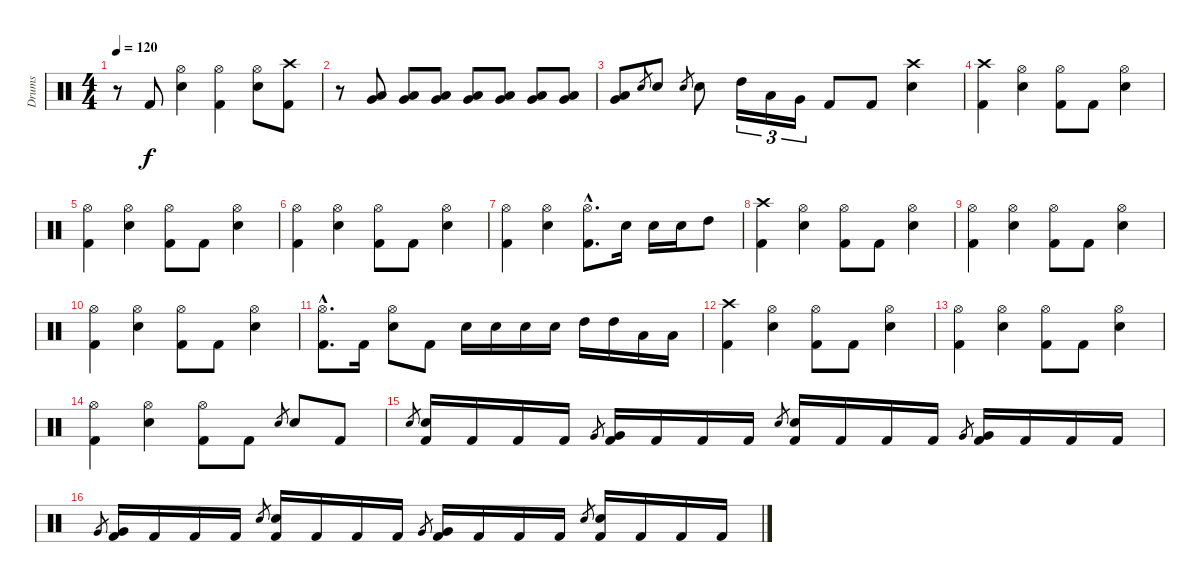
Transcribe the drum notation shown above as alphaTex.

\track ("Drums" "Drums") {instrument percussion}
\staff {score}
\articulation defaults
\ts (4 4)
\tempo 120
\clef neutral
\ks c
r.8{dy f} "Kick (hit) 2".8 ("Hi-Hat (open)" "Electric Snare (hit)").4 ("Hi-Hat (open)" "Kick (hit) 2").4 ("Hi-Hat (open)" "Electric Snare (hit)").8 ("Crash high (hit)" "Kick (hit) 2").8 |
r.8 ("Low Tom (hit)" "Very Low Tom (hit)").8 ("Low Tom (hit)" "Very Low Tom (hit)").8 ("Low Tom (hit)" "Very Low Tom (hit)").8 ("Low Tom (hit)" "Very Low Tom (hit)").8 ("Low Tom (hit)" "Very Low Tom (hit)").8 ("Low Tom (hit)" "Very Low Tom (hit)").8 ("Low Tom (hit)" "Very Low Tom (hit)").8 |
("Low Tom (hit)" "Very Low Tom (hit)").8 "Electric Snare (hit)".8{gr} "Electric Snare (hit)".8 "Electric Snare (hit)".8{gr} "Electric Snare (hit)".8 "High Tom (hit)".16{tu (3 2)} "Low Tom (hit)".16{tu (3 2)} "Very Low Tom (hit)".16{tu (3 2)} "Kick (hit) 2".8 "Kick (hit) 2".8 ("Crash high (hit)" "Electric Snare (hit)").4 |
("Crash high (hit)" "Kick (hit) 2").4 ("Hi-Hat (open)" "Electric Snare (hit)").4 ("Hi-Hat (open)" "Kick (hit) 2").8 "Kick (hit) 2".8 ("Hi-Hat (open)" "Electric Snare (hit)").4 |
("Hi-Hat (open)" "Kick (hit) 2").4 ("Hi-Hat (open)" "Electric Snare (hit)").4 ("Hi-Hat (open)" "Kick (hit) 2").8 "Kick (hit) 2".8 ("Hi-Hat (open)" "Electric Snare (hit)").4 |
("Hi-Hat (open)" "Kick (hit) 2").4 ("Hi-Hat (open)" "Electric Snare (hit)").4 ("Hi-Hat (open)" "Kick (hit) 2").8 "Kick (hit) 2".8 ("Hi-Hat (open)" "Electric Snare (hit)").4 |
("Hi-Hat (open)" "Kick (hit) 2").4 ("Hi-Hat (open)" "Electric Snare (hit)").4 ("Hi-Hat (open)"{hac} "Kick (hit) 2"{hac}).8{d} "Electric Snare (hit)".16 "Electric Snare (hit)".16 "Electric Snare (hit)".16 "High Tom (hit)".8 |
("Crash high (hit)" "Kick (hit) 2").4 ("Hi-Hat (open)" "Electric Snare (hit)").4 ("Hi-Hat (open)" "Kick (hit) 2").8 "Kick (hit) 2".8 ("Hi-Hat (open)" "Electric Snare (hit)").4 |
("Hi-Hat (open)" "Kick (hit) 2").4 ("Hi-Hat (open)" "Electric Snare (hit)").4 ("Hi-Hat (open)" "Kick (hit) 2").8 "Kick (hit) 2".8 ("Hi-Hat (open)" "Electric Snare (hit)").4 |
("Hi-Hat (open)" "Kick (hit) 2").4 ("Hi-Hat (open)" "Electric Snare (hit)").4 ("Hi-Hat (open)" "Kick (hit) 2").8 "Kick (hit) 2".8 ("Hi-Hat (open)" "Electric Snare (hit)").4 |
("Hi-Hat (open)"{hac} "Kick (hit) 2"{hac}).8{d} "Kick (hit) 2".16 ("Hi-Hat (open)" "Electric Snare (hit)").8 "Kick (hit) 2".8 "Electric Snare (hit)".16 "Electric Snare (hit)".16 "Electric Snare (hit)".16 "Electric Snare (hit)".16 "High Tom (hit)".16 "High Tom (hit)".16 "Low Tom (hit)".16 "Low Tom (hit)".16 |
("Crash high (hit)" "Kick (hit) 2").4 ("Hi-Hat (open)" "Electric Snare (hit)").4 ("Hi-Hat (open)" "Kick (hit) 2").8 "Kick (hit) 2".8 ("Hi-Hat (open)" "Electric Snare (hit)").4 |
("Hi-Hat (open)" "Kick (hit) 2").4 ("Hi-Hat (open)" "Electric Snare (hit)").4 ("Hi-Hat (open)" "Kick (hit) 2").8 "Kick (hit) 2".8 ("Hi-Hat (open)" "Electric Snare (hit)").4 |
("Hi-Hat (open)" "Kick (hit) 2").4 ("Hi-Hat (open)" "Electric Snare (hit)").4 ("Hi-Hat (open)" "Kick (hit) 2").8 "Kick (hit) 2".8 "Electric Snare (hit)".8{gr} "Electric Snare (hit)".8 "Kick (hit) 2".8 |
"Electric Snare (hit)".8{gr} ("Electric Snare (hit)" "Kick (hit) 2").16 "Kick (hit) 2".16 "Kick (hit) 2".16 "Kick (hit) 2".16 "Very Low Tom (hit)".8{gr} ("Very Low Tom (hit)" "Kick (hit) 2").16 "Kick (hit) 2".16 "Kick (hit) 2".16 "Kick (hit) 2".16 "Electric Snare (hit)".8{gr} ("Electric Snare (hit)" "Kick (hit) 2").16 "Kick (hit) 2".16 "Kick (hit) 2".16 "Kick (hit) 2".16 "Very Low Tom (hit)".8{gr} ("Very Low Tom (hit)" "Kick (hit) 2").16 "Kick (hit) 2".16 "Kick (hit) 2".16 "Kick (hit) 2".16 |
"Very Low Tom (hit)".8{gr} ("Very Low Tom (hit)" "Kick (hit) 2").16 "Kick (hit) 2".16 "Kick (hit) 2".16 "Kick (hit) 2".16 "Electric Snare (hit)".8{gr} ("Electric Snare (hit)" "Kick (hit) 2").16 "Kick (hit) 2".16 "Kick (hit) 2".16 "Kick (hit) 2".16 "Very Low Tom (hit)".8{gr} ("Very Low Tom (hit)" "Kick (hit) 2").16 "Kick (hit) 2".16 "Kick (hit) 2".16 "Kick (hit) 2".16 "Electric Snare (hit)".8{gr} ("Electric Snare (hit)" "Kick (hit) 2").16 "Kick (hit) 2".16 "Kick (hit) 2".16 "Kick (hit) 2".16
